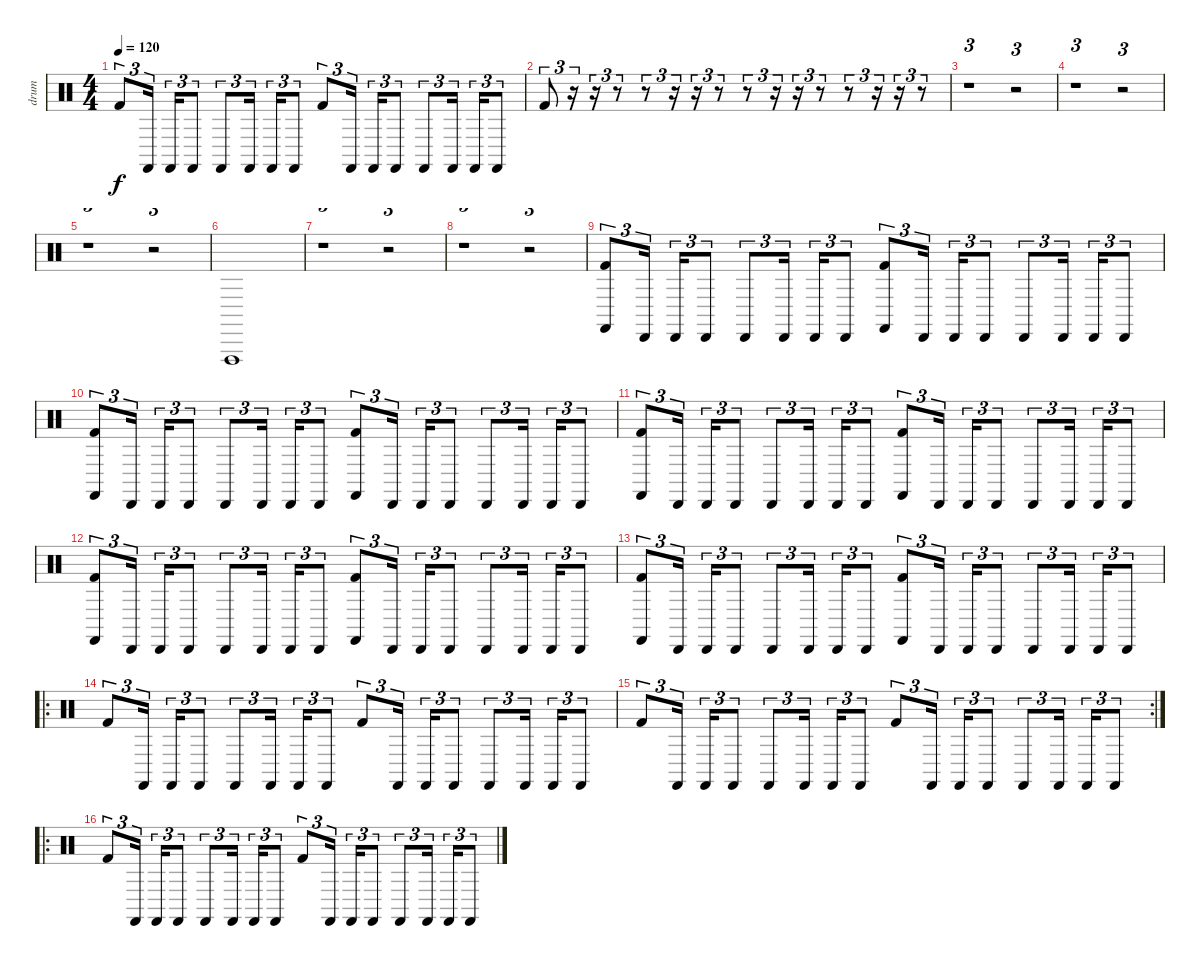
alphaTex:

\track ("drum" "drum") {instrument percussion}
\staff {score}
\articulation defaults
\ts (4 4)
\tempo 120
\clef neutral
\ks c "Kick (hit) 2".8{tu (3 2) dy f} "Castanets (hit)".16{tu (3 2)} "Castanets (hit)".16{tu (3 2)} "Castanets (hit)".8{tu (3 2)} "Castanets (hit)".8{tu (3 2)} "Castanets (hit)".16{tu (3 2)} "Castanets (hit)".16{tu (3 2)} "Castanets (hit)".8{tu (3 2)} "Kick (hit) 2".8{tu (3 2)} "Castanets (hit)".16{tu (3 2)} "Castanets (hit)".16{tu (3 2)} "Castanets (hit)".8{tu (3 2)} "Castanets (hit)".8{tu (3 2)} "Castanets (hit)".16{tu (3 2)} "Castanets (hit)".16{tu (3 2)} "Castanets (hit)".8{tu (3 2)}
|
"Kick (hit) 2".8{tu (3 2)} r.16{tu (3 2)} r.16{tu (3 2)} r.8{tu (3 2)} r.8{tu (3 2)} r.16{tu (3 2)} r.16{tu (3 2)} r.8{tu (3 2)} r.8{tu (3 2)} r.16{tu (3 2)} r.16{tu (3 2)} r.8{tu (3 2)} r.8{tu (3 2)} r.16{tu (3 2)} r.16{tu (3 2)} r.8{tu (3 2)} |
r.1{tu (3 2)} r.2{tu (3 2)} |
r.1{tu (3 2)} r.2{tu (3 2)} |
r.1{tu (3 2)} r.2{tu (3 2)} |
"Vibraslap (hit)".1 |
r.1{tu (3 2)} r.2{tu (3 2)} |
r.1{tu (3 2)} r.2{tu (3 2)} |
("Castanets (hit)" "Kick (hit) 2").8{tu (3 2)} "Cabasa (hit)".16{tu (3 2)} "Cabasa (hit)".16{tu (3 2)} "Cabasa (hit)".8{tu (3 2)} "Cabasa (hit)".8{tu (3 2)} "Cabasa (hit)".16{tu (3 2)} "Cabasa (hit)".16{tu (3 2)} "Cabasa (hit)".8{tu (3 2)} ("Castanets (hit)" "Kick (hit) 2").8{tu (3 2)} "Cabasa (hit)".16{tu (3 2)} "Cabasa (hit)".16{tu (3 2)} "Cabasa (hit)".8{tu (3 2)} "Cabasa (hit)".8{tu (3 2)} "Cabasa (hit)".16{tu (3 2)} "Cabasa (hit)".16{tu (3 2)} "Cabasa (hit)".8{tu (3 2)} |
("Castanets (hit)" "Kick (hit) 2").8{tu (3 2)} "Cabasa (hit)".16{tu (3 2)} "Cabasa (hit)".16{tu (3 2)} "Cabasa (hit)".8{tu (3 2)} "Cabasa (hit)".8{tu (3 2)} "Cabasa (hit)".16{tu (3 2)} "Cabasa (hit)".16{tu (3 2)} "Cabasa (hit)".8{tu (3 2)} ("Castanets (hit)" "Kick (hit) 2").8{tu (3 2)} "Cabasa (hit)".16{tu (3 2)} "Cabasa (hit)".16{tu (3 2)} "Cabasa (hit)".8{tu (3 2)} "Cabasa (hit)".8{tu (3 2)} "Cabasa (hit)".16{tu (3 2)} "Cabasa (hit)".16{tu (3 2)} "Cabasa (hit)".8{tu (3 2)} |
("Castanets (hit)" "Kick (hit) 2").8{tu (3 2)} "Cabasa (hit)".16{tu (3 2)} "Cabasa (hit)".16{tu (3 2)} "Cabasa (hit)".8{tu (3 2)} "Cabasa (hit)".8{tu (3 2)} "Cabasa (hit)".16{tu (3 2)} "Cabasa (hit)".16{tu (3 2)} "Cabasa (hit)".8{tu (3 2)} ("Castanets (hit)" "Kick (hit) 2").8{tu (3 2)} "Cabasa (hit)".16{tu (3 2)} "Cabasa (hit)".16{tu (3 2)} "Cabasa (hit)".8{tu (3 2)} "Cabasa (hit)".8{tu (3 2)} "Cabasa (hit)".16{tu (3 2)} "Cabasa (hit)".16{tu (3 2)} "Cabasa (hit)".8{tu (3 2)} |
("Castanets (hit)" "Kick (hit) 2").8{tu (3 2)} "Cabasa (hit)".16{tu (3 2)} "Cabasa (hit)".16{tu (3 2)} "Cabasa (hit)".8{tu (3 2)} "Cabasa (hit)".8{tu (3 2)} "Cabasa (hit)".16{tu (3 2)} "Cabasa (hit)".16{tu (3 2)} "Cabasa (hit)".8{tu (3 2)} ("Castanets (hit)" "Kick (hit) 2").8{tu (3 2)} "Cabasa (hit)".16{tu (3 2)} "Cabasa (hit)".16{tu (3 2)} "Cabasa (hit)".8{tu (3 2)} "Cabasa (hit)".8{tu (3 2)} "Cabasa (hit)".16{tu (3 2)} "Cabasa (hit)".16{tu (3 2)} "Cabasa (hit)".8{tu (3 2)} |
("Castanets (hit)" "Kick (hit) 2").8{tu (3 2)} "Cabasa (hit)".16{tu (3 2)} "Cabasa (hit)".16{tu (3 2)} "Cabasa (hit)".8{tu (3 2)} "Cabasa (hit)".8{tu (3 2)} "Cabasa (hit)".16{tu (3 2)} "Cabasa (hit)".16{tu (3 2)} "Cabasa (hit)".8{tu (3 2)} ("Castanets (hit)" "Kick (hit) 2").8{tu (3 2)} "Cabasa (hit)".16{tu (3 2)} "Cabasa (hit)".16{tu (3 2)} "Cabasa (hit)".8{tu (3 2)} "Cabasa (hit)".8{tu (3 2)} "Cabasa (hit)".16{tu (3 2)} "Cabasa (hit)".16{tu (3 2)} "Cabasa (hit)".8{tu (3 2)} |
\ro "Kick (hit) 2".8{tu (3 2)} "Castanets (hit)".16{tu (3 2)} "Castanets (hit)".16{tu (3 2)} "Castanets (hit)".8{tu (3 2)} "Castanets (hit)".8{tu (3 2)} "Castanets (hit)".16{tu (3 2)} "Castanets (hit)".16{tu (3 2)} "Castanets (hit)".8{tu (3 2)} "Kick (hit) 2".8{tu (3 2)} "Castanets (hit)".16{tu (3 2)} "Castanets (hit)".16{tu (3 2)} "Castanets (hit)".8{tu (3 2)} "Castanets (hit)".8{tu (3 2)} "Castanets (hit)".16{tu (3 2)} "Castanets (hit)".16{tu (3 2)} "Castanets (hit)".8{tu (3 2)}
|
\rc 2 "Kick (hit) 2".8{tu (3 2)} "Castanets (hit)".16{tu (3 2)} "Castanets (hit)".16{tu (3 2)} "Castanets (hit)".8{tu (3 2)} "Castanets (hit)".8{tu (3 2)} "Castanets (hit)".16{tu (3 2)} "Castanets (hit)".16{tu (3 2)} "Castanets (hit)".8{tu (3 2)} "Kick (hit) 2".8{tu (3 2)} "Castanets (hit)".16{tu (3 2)} "Castanets (hit)".16{tu (3 2)} "Castanets (hit)".8{tu (3 2)} "Castanets (hit)".8{tu (3 2)} "Castanets (hit)".16{tu (3 2)} "Castanets (hit)".16{tu (3 2)} "Castanets (hit)".8{tu (3 2)}
|
\ro "Kick (hit) 2".8{tu (3 2)} "Castanets (hit)".16{tu (3 2)} "Castanets (hit)".16{tu (3 2)} "Castanets (hit)".8{tu (3 2)} "Castanets (hit)".8{tu (3 2)} "Castanets (hit)".16{tu (3 2)} "Castanets (hit)".16{tu (3 2)} "Castanets (hit)".8{tu (3 2)} "Kick (hit) 2".8{tu (3 2)} "Castanets (hit)".16{tu (3 2)} "Castanets (hit)".16{tu (3 2)} "Castanets (hit)".8{tu (3 2)} "Castanets (hit)".8{tu (3 2)} "Castanets (hit)".16{tu (3 2)} "Castanets (hit)".16{tu (3 2)} "Castanets (hit)".8{tu (3 2)}
